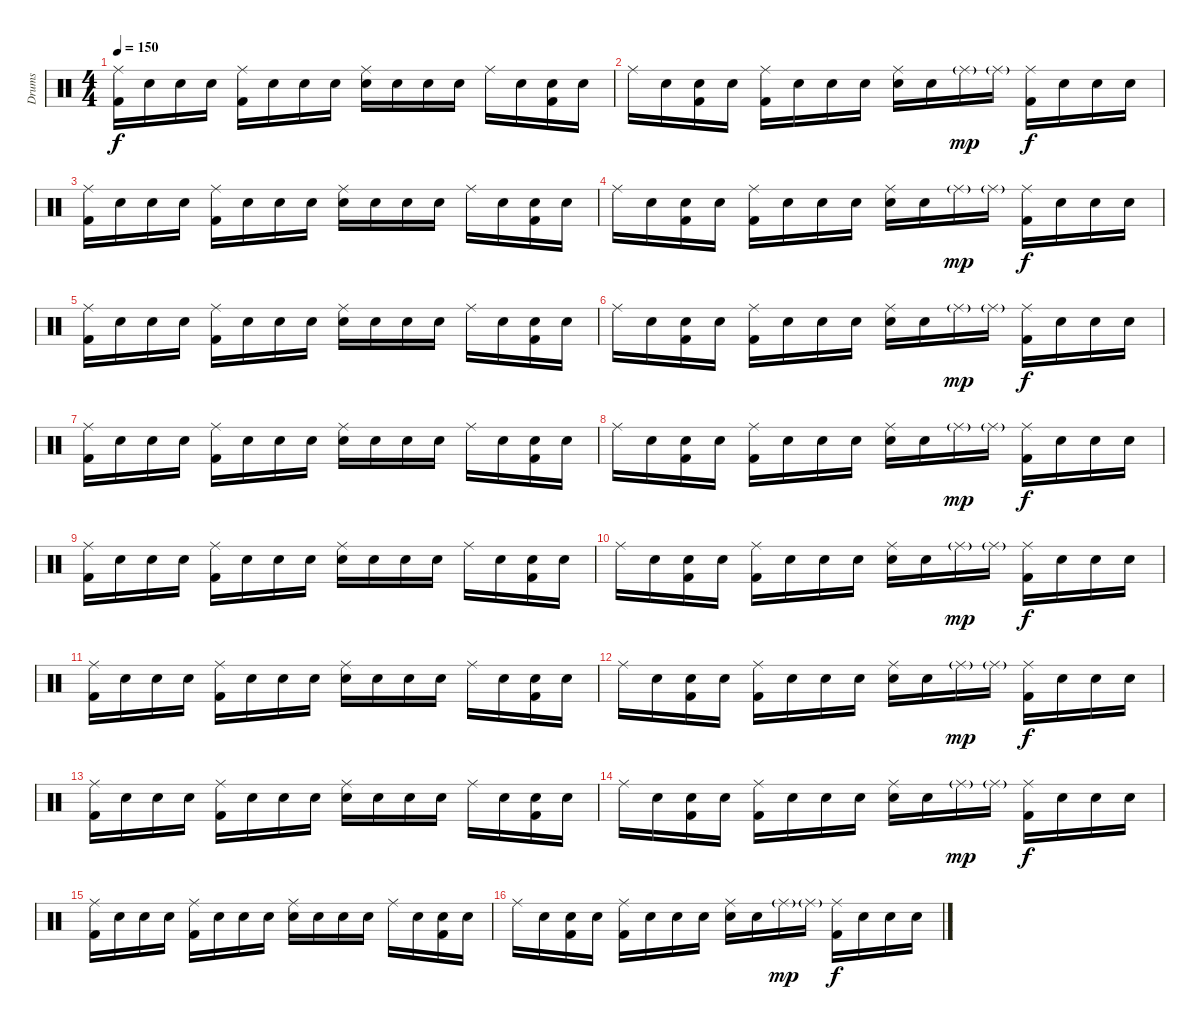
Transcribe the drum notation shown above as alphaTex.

\track ("Drums" "Drums") {instrument percussion}
\staff {score}
\articulation defaults
\ts (4 4)
\tempo 150
\clef neutral
\ks c
("Ride (middle)" "Kick (hit) 2").16{dy f} "Snare (hit)".16 "Snare (hit)".16 "Snare (hit)".16 ("Ride (middle)" "Kick (hit) 2").16 "Snare (hit)".16 "Snare (hit)".16 "Snare (hit)".16 ("Ride (middle)" "Electric Snare (hit)").16 "Snare (hit)".16 "Snare (hit)".16 "Snare (hit)".16 "Ride (middle)".16 "Snare (hit)".16 ("Snare (hit)" "Kick (hit) 2").16 "Snare (hit)".16 |
"Ride (middle)".16 "Snare (hit)".16 ("Snare (hit)" "Kick (hit) 2").16 "Snare (hit)".16 ("Ride (middle)" "Kick (hit) 2").16 "Snare (hit)".16 "Snare (hit)".16 "Snare (hit)".16 ("Ride (middle)" "Electric Snare (hit)").16 "Snare (hit)".16 "Ride (middle)"{g}.16{dy mp} "Ride (middle)"{g}.16 ("Ride (middle)" "Kick (hit) 2").16{dy f} "Snare (hit)".16 "Snare (hit)".16 "Snare (hit)".16 |
("Ride (middle)" "Kick (hit) 2").16 "Snare (hit)".16 "Snare (hit)".16 "Snare (hit)".16 ("Ride (middle)" "Kick (hit) 2").16 "Snare (hit)".16 "Snare (hit)".16 "Snare (hit)".16 ("Ride (middle)" "Electric Snare (hit)").16 "Snare (hit)".16 "Snare (hit)".16 "Snare (hit)".16 "Ride (middle)".16 "Snare (hit)".16 ("Snare (hit)" "Kick (hit) 2").16 "Snare (hit)".16 |
"Ride (middle)".16 "Snare (hit)".16 ("Snare (hit)" "Kick (hit) 2").16 "Snare (hit)".16 ("Ride (middle)" "Kick (hit) 2").16 "Snare (hit)".16 "Snare (hit)".16 "Snare (hit)".16 ("Ride (middle)" "Electric Snare (hit)").16 "Snare (hit)".16 "Ride (middle)"{g}.16{dy mp} "Ride (middle)"{g}.16 ("Ride (middle)" "Kick (hit) 2").16{dy f} "Snare (hit)".16 "Snare (hit)".16 "Snare (hit)".16 |
("Ride (middle)" "Kick (hit) 2").16 "Snare (hit)".16 "Snare (hit)".16 "Snare (hit)".16 ("Ride (middle)" "Kick (hit) 2").16 "Snare (hit)".16 "Snare (hit)".16 "Snare (hit)".16 ("Ride (middle)" "Electric Snare (hit)").16 "Snare (hit)".16 "Snare (hit)".16 "Snare (hit)".16 "Ride (middle)".16 "Snare (hit)".16 ("Snare (hit)" "Kick (hit) 2").16 "Snare (hit)".16 |
"Ride (middle)".16 "Snare (hit)".16 ("Snare (hit)" "Kick (hit) 2").16 "Snare (hit)".16 ("Ride (middle)" "Kick (hit) 2").16 "Snare (hit)".16 "Snare (hit)".16 "Snare (hit)".16 ("Ride (middle)" "Electric Snare (hit)").16 "Snare (hit)".16 "Ride (middle)"{g}.16{dy mp} "Ride (middle)"{g}.16 ("Ride (middle)" "Kick (hit) 2").16{dy f} "Snare (hit)".16 "Snare (hit)".16 "Snare (hit)".16 |
("Ride (middle)" "Kick (hit) 2").16 "Snare (hit)".16 "Snare (hit)".16 "Snare (hit)".16 ("Ride (middle)" "Kick (hit) 2").16 "Snare (hit)".16 "Snare (hit)".16 "Snare (hit)".16 ("Ride (middle)" "Electric Snare (hit)").16 "Snare (hit)".16 "Snare (hit)".16 "Snare (hit)".16 "Ride (middle)".16 "Snare (hit)".16 ("Snare (hit)" "Kick (hit) 2").16 "Snare (hit)".16 |
"Ride (middle)".16 "Snare (hit)".16 ("Snare (hit)" "Kick (hit) 2").16 "Snare (hit)".16 ("Ride (middle)" "Kick (hit) 2").16 "Snare (hit)".16 "Snare (hit)".16 "Snare (hit)".16 ("Ride (middle)" "Electric Snare (hit)").16 "Snare (hit)".16 "Ride (middle)"{g}.16{dy mp} "Ride (middle)"{g}.16 ("Ride (middle)" "Kick (hit) 2").16{dy f} "Snare (hit)".16 "Snare (hit)".16 "Snare (hit)".16 |
("Ride (middle)" "Kick (hit) 2").16 "Snare (hit)".16 "Snare (hit)".16 "Snare (hit)".16 ("Ride (middle)" "Kick (hit) 2").16 "Snare (hit)".16 "Snare (hit)".16 "Snare (hit)".16 ("Ride (middle)" "Electric Snare (hit)").16 "Snare (hit)".16 "Snare (hit)".16 "Snare (hit)".16 "Ride (middle)".16 "Snare (hit)".16 ("Snare (hit)" "Kick (hit) 2").16 "Snare (hit)".16 |
"Ride (middle)".16 "Snare (hit)".16 ("Snare (hit)" "Kick (hit) 2").16 "Snare (hit)".16 ("Ride (middle)" "Kick (hit) 2").16 "Snare (hit)".16 "Snare (hit)".16 "Snare (hit)".16 ("Ride (middle)" "Electric Snare (hit)").16 "Snare (hit)".16 "Ride (middle)"{g}.16{dy mp} "Ride (middle)"{g}.16 ("Ride (middle)" "Kick (hit) 2").16{dy f} "Snare (hit)".16 "Snare (hit)".16 "Snare (hit)".16 |
("Ride (middle)" "Kick (hit) 2").16 "Snare (hit)".16 "Snare (hit)".16 "Snare (hit)".16 ("Ride (middle)" "Kick (hit) 2").16 "Snare (hit)".16 "Snare (hit)".16 "Snare (hit)".16 ("Ride (middle)" "Electric Snare (hit)").16 "Snare (hit)".16 "Snare (hit)".16 "Snare (hit)".16 "Ride (middle)".16 "Snare (hit)".16 ("Snare (hit)" "Kick (hit) 2").16 "Snare (hit)".16 |
"Ride (middle)".16 "Snare (hit)".16 ("Snare (hit)" "Kick (hit) 2").16 "Snare (hit)".16 ("Ride (middle)" "Kick (hit) 2").16 "Snare (hit)".16 "Snare (hit)".16 "Snare (hit)".16 ("Ride (middle)" "Electric Snare (hit)").16 "Snare (hit)".16 "Ride (middle)"{g}.16{dy mp} "Ride (middle)"{g}.16 ("Ride (middle)" "Kick (hit) 2").16{dy f} "Snare (hit)".16 "Snare (hit)".16 "Snare (hit)".16 |
("Ride (middle)" "Kick (hit) 2").16 "Snare (hit)".16 "Snare (hit)".16 "Snare (hit)".16 ("Ride (middle)" "Kick (hit) 2").16 "Snare (hit)".16 "Snare (hit)".16 "Snare (hit)".16 ("Ride (middle)" "Electric Snare (hit)").16 "Snare (hit)".16 "Snare (hit)".16 "Snare (hit)".16 "Ride (middle)".16 "Snare (hit)".16 ("Snare (hit)" "Kick (hit) 2").16 "Snare (hit)".16 |
"Ride (middle)".16 "Snare (hit)".16 ("Snare (hit)" "Kick (hit) 2").16 "Snare (hit)".16 ("Ride (middle)" "Kick (hit) 2").16 "Snare (hit)".16 "Snare (hit)".16 "Snare (hit)".16 ("Ride (middle)" "Electric Snare (hit)").16 "Snare (hit)".16 "Ride (middle)"{g}.16{dy mp} "Ride (middle)"{g}.16 ("Ride (middle)" "Kick (hit) 2").16{dy f} "Snare (hit)".16 "Snare (hit)".16 "Snare (hit)".16 |
("Ride (middle)" "Kick (hit) 2").16 "Snare (hit)".16 "Snare (hit)".16 "Snare (hit)".16 ("Ride (middle)" "Kick (hit) 2").16 "Snare (hit)".16 "Snare (hit)".16 "Snare (hit)".16 ("Ride (middle)" "Electric Snare (hit)").16 "Snare (hit)".16 "Snare (hit)".16 "Snare (hit)".16 "Ride (middle)".16 "Snare (hit)".16 ("Snare (hit)" "Kick (hit) 2").16 "Snare (hit)".16 |
"Ride (middle)".16 "Snare (hit)".16 ("Snare (hit)" "Kick (hit) 2").16 "Snare (hit)".16 ("Ride (middle)" "Kick (hit) 2").16 "Snare (hit)".16 "Snare (hit)".16 "Snare (hit)".16 ("Ride (middle)" "Electric Snare (hit)").16 "Snare (hit)".16 "Ride (middle)"{g}.16{dy mp} "Ride (middle)"{g}.16 ("Ride (middle)" "Kick (hit) 2").16{dy f} "Snare (hit)".16 "Snare (hit)".16 "Snare (hit)".16
